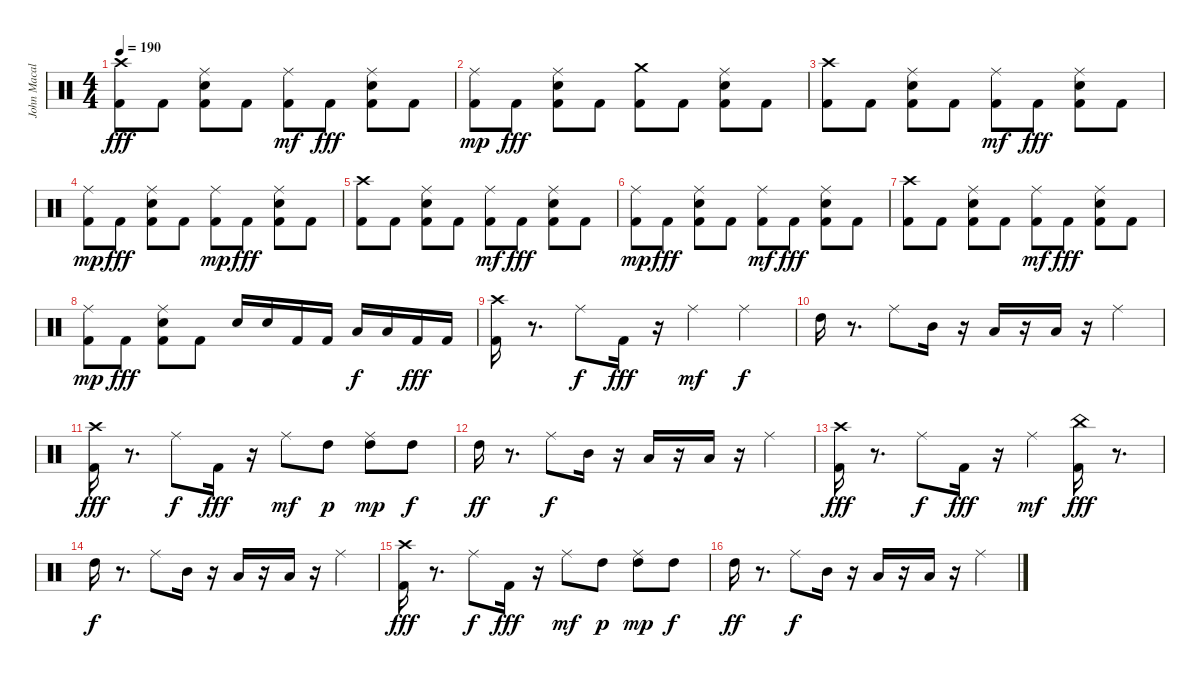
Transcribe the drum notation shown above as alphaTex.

\track ("John Macaluso drums" "John Macal") {instrument percussion}
\staff {score}
\articulation defaults
\ts (4 4)
\tempo 190
\clef neutral
\ks c
("Kick (hit) 2" "Crash high (hit)").8{dy fff} "Kick (hit) 2".8 ("Kick (hit) 2" "Snare (hit) 2" "Ride (middle)").8 "Kick (hit) 2".8 ("Kick (hit) 2" "Ride (middle)").8{dy mf} "Kick (hit) 2".8{dy fff} ("Kick (hit) 2" "Snare (hit) 2" "Ride (middle)").8 "Kick (hit) 2".8 |
("Kick (hit) 2" "Ride (middle)").8{dy mp} "Kick (hit) 2".8{dy fff} ("Kick (hit) 2" "Snare (hit) 2" "Ride (middle)").8 "Kick (hit) 2".8 ("Kick (hit) 2" "Crash medium (hit)").8 "Kick (hit) 2".8 ("Kick (hit) 2" "Snare (hit) 2" "Ride (middle)").8 "Kick (hit) 2".8 |
("Kick (hit) 2" "Crash high (hit)").8 "Kick (hit) 2".8 ("Kick (hit) 2" "Snare (hit) 2" "Ride (middle)").8 "Kick (hit) 2".8 ("Kick (hit) 2" "Ride (middle)").8{dy mf} "Kick (hit) 2".8{dy fff} ("Kick (hit) 2" "Snare (hit) 2" "Ride (middle)").8 "Kick (hit) 2".8 |
("Kick (hit) 2" "Ride (middle)").8{dy mp} "Kick (hit) 2".8{dy fff} ("Kick (hit) 2" "Snare (hit) 2" "Ride (middle)").8 "Kick (hit) 2".8 ("Kick (hit) 2" "Ride (middle)").8{dy mp} "Kick (hit) 2".8{dy fff} ("Kick (hit) 2" "Snare (hit) 2" "Ride (middle)").8 "Kick (hit) 2".8 |
("Kick (hit) 2" "Crash high (hit)").8 "Kick (hit) 2".8 ("Kick (hit) 2" "Snare (hit) 2" "Ride (middle)").8 "Kick (hit) 2".8 ("Kick (hit) 2" "Ride (middle)").8{dy mf} "Kick (hit) 2".8{dy fff} ("Kick (hit) 2" "Snare (hit) 2" "Ride (middle)").8 "Kick (hit) 2".8 |
("Kick (hit) 2" "Ride (middle)").8{dy mp} "Kick (hit) 2".8{dy fff} ("Kick (hit) 2" "Snare (hit) 2" "Ride (middle)").8 "Kick (hit) 2".8 ("Kick (hit) 2" "Ride (middle)").8{dy mf} "Kick (hit) 2".8{dy fff} ("Kick (hit) 2" "Snare (hit) 2" "Ride (middle)").8 "Kick (hit) 2".8 |
("Kick (hit) 2" "Crash high (hit)").8 "Kick (hit) 2".8 ("Kick (hit) 2" "Snare (hit) 2" "Ride (middle)").8 "Kick (hit) 2".8 ("Kick (hit) 2" "Ride (middle)").8{dy mf} "Kick (hit) 2".8{dy fff} ("Kick (hit) 2" "Snare (hit) 2" "Ride (middle)").8 "Kick (hit) 2".8 |
("Kick (hit) 2" "Ride (middle)").8{dy mp} "Kick (hit) 2".8{dy fff} ("Kick (hit) 2" "Snare (hit) 2" "Ride (middle)").8 "Kick (hit) 2".8 "Snare (hit) 2".16 "Snare (hit) 2".16 "Kick (hit) 2".16 "Kick (hit) 2".16 "Low Floor Tom (hit)".16{dy f} "Low Floor Tom (hit)".16 "Kick (hit) 2".16{dy fff} "Kick (hit) 2".16 |
("Kick (hit) 2" "Crash high (hit)").16 r.8{d} "Ride (middle)".8{dy f} "Kick (hit) 2".16{dy fff} r.16 "Ride (middle)".4{dy mf} "Ride (middle)".4{dy f} |
"High Tom (hit)".16 r.8{d} "Ride (middle)".8 "Mid Tom (hit)".16 r.16 "Low Tom (hit)".16 r.16 "Low Tom (hit)".16 r.16 "Ride (middle)".4 |
("Kick (hit) 2" "Crash high (hit)").16{dy fff} r.8{d} "Ride (middle)".8{dy f} "Kick (hit) 2".16{dy fff} r.16 "Ride (middle)".8{dy mf} "High Tom (hit)".8{dy p} ("High Tom (hit)" "Ride (middle)").8{dy mp} "High Tom (hit)".8{dy f} |
"High Tom (hit)".16{dy ff} r.8{d} "Ride (middle)".8{dy f} "Mid Tom (hit)".16 r.16 "Low Tom (hit)".16 r.16 "Low Tom (hit)".16 r.16 "Ride (middle)".4 |
("Kick (hit) 2" "Crash high (hit)").16{dy fff} r.8{d} "Ride (middle)".8{dy f} "Kick (hit) 2".16{dy fff} r.16 "Ride (middle)".4{dy mf} ("Kick (hit) 2" "China (hit)").16{dy fff} r.8{d} |
"High Tom (hit)".16{dy f} r.8{d} "Ride (middle)".8 "Mid Tom (hit)".16 r.16 "Low Tom (hit)".16 r.16 "Low Tom (hit)".16 r.16 "Ride (middle)".4 |
("Kick (hit) 2" "Crash high (hit)").16{dy fff} r.8{d} "Ride (middle)".8{dy f} "Kick (hit) 2".16{dy fff} r.16 "Ride (middle)".8{dy mf} "High Tom (hit)".8{dy p} ("High Tom (hit)" "Ride (middle)").8{dy mp} "High Tom (hit)".8{dy f} |
"High Tom (hit)".16{dy ff} r.8{d} "Ride (middle)".8{dy f} "Mid Tom (hit)".16 r.16 "Low Tom (hit)".16 r.16 "Low Tom (hit)".16 r.16 "Ride (middle)".4
